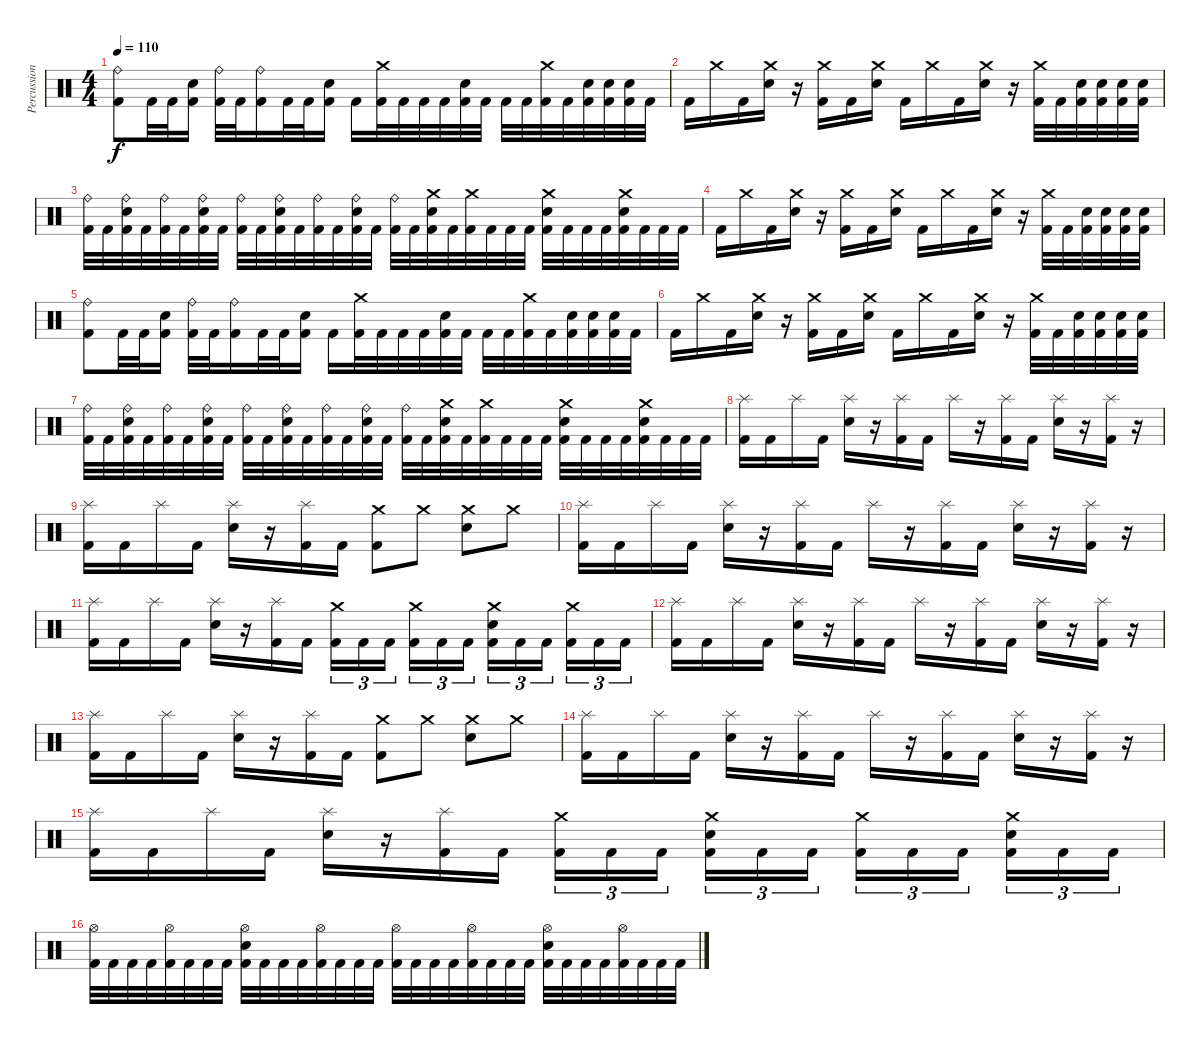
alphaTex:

\track ("Percussion" "Percussion") {instrument percussion}
\staff {score}
\articulation defaults
\ts (4 4)
\tempo 110
\clef neutral
\ks c
("Ride (bell)" "Kick (hit) 2").8{dy f} "Kick (hit) 2".32 "Kick (hit) 2".32 ("Electric Snare (hit)" "Kick (hit) 2").16 ("Ride (bell)" "Kick (hit) 2").32 "Kick (hit) 2".32 ("Ride (bell)" "Kick (hit) 2").16 "Kick (hit) 2".32 "Kick (hit) 2".32 ("Electric Snare (hit)" "Kick (hit) 2").16 "Kick (hit) 2".16 ("Crash medium (hit)" "Kick (hit) 2").32 "Kick (hit) 2".32 "Kick (hit) 2".32 "Kick (hit) 2".32 ("Electric Snare (hit)" "Kick (hit) 2").32 "Kick (hit) 2".32 "Kick (hit) 2".32 "Kick (hit) 2".32 ("Crash medium (hit)" "Kick (hit) 2").32 "Kick (hit) 2".32 ("Electric Snare (hit)" "Kick (hit) 2").32 ("Electric Snare (hit)" "Kick (hit) 2").32 ("Electric Snare (hit)" "Kick (hit) 2").32 "Kick (hit) 2".32 |
"Kick (hit) 2".16 "Crash medium (hit)".16 "Kick (hit) 2".16 ("Crash medium (hit)" "Electric Snare (hit)").16 r.16 ("Crash medium (hit)" "Kick (hit) 2").16 "Kick (hit) 2".16 ("Crash medium (hit)" "Electric Snare (hit)").16 "Kick (hit) 2".16 "Crash medium (hit)".16 "Kick (hit) 2".16 ("Crash medium (hit)" "Electric Snare (hit)").16 r.16 ("Crash medium (hit)" "Kick (hit) 2").32 "Kick (hit) 2".32 ("Electric Snare (hit)" "Kick (hit) 2").32 ("Electric Snare (hit)" "Kick (hit) 2").32 ("Electric Snare (hit)" "Kick (hit) 2").32 ("Electric Snare (hit)" "Kick (hit) 2").32 |
("Ride (bell)" "Kick (hit) 2").32 "Kick (hit) 2".32 ("Ride (bell)" "Electric Snare (hit)" "Kick (hit) 2").32 "Kick (hit) 2".32 ("Ride (bell)" "Kick (hit) 2").32 "Kick (hit) 2".32 ("Ride (bell)" "Electric Snare (hit)" "Kick (hit) 2").32 "Kick (hit) 2".32 ("Ride (bell)" "Kick (hit) 2").32 "Kick (hit) 2".32 ("Ride (bell)" "Electric Snare (hit)" "Kick (hit) 2").32 "Kick (hit) 2".32 ("Ride (bell)" "Kick (hit) 2").32 "Kick (hit) 2".32 ("Ride (bell)" "Electric Snare (hit)" "Kick (hit) 2").32 "Kick (hit) 2".32 ("Ride (bell)" "Kick (hit) 2").32 "Kick (hit) 2".32 ("Crash medium (hit)" "Electric Snare (hit)" "Kick (hit) 2").32 "Kick (hit) 2".32 ("Crash medium (hit)" "Kick (hit) 2").32 "Kick (hit) 2".32 "Kick (hit) 2".32 "Kick (hit) 2".32 ("Crash medium (hit)" "Electric Snare (hit)" "Kick (hit) 2").32 "Kick (hit) 2".32 "Kick (hit) 2".32 "Kick (hit) 2".32 ("Crash medium (hit)" "Electric Snare (hit)" "Kick (hit) 2").32 "Kick (hit) 2".32 "Kick (hit) 2".32 "Kick (hit) 2".32 |
"Kick (hit) 2".16 "Crash medium (hit)".16 "Kick (hit) 2".16 ("Crash medium (hit)" "Electric Snare (hit)").16 r.16 ("Crash medium (hit)" "Kick (hit) 2").16 "Kick (hit) 2".16 ("Crash medium (hit)" "Electric Snare (hit)").16 "Kick (hit) 2".16 "Crash medium (hit)".16 "Kick (hit) 2".16 ("Crash medium (hit)" "Electric Snare (hit)").16 r.16 ("Crash medium (hit)" "Kick (hit) 2").32 "Kick (hit) 2".32 ("Electric Snare (hit)" "Kick (hit) 2").32 ("Electric Snare (hit)" "Kick (hit) 2").32 ("Electric Snare (hit)" "Kick (hit) 2").32 ("Electric Snare (hit)" "Kick (hit) 2").32 |
("Ride (bell)" "Kick (hit) 2").8 "Kick (hit) 2".32 "Kick (hit) 2".32 ("Electric Snare (hit)" "Kick (hit) 2").16 ("Ride (bell)" "Kick (hit) 2").32 "Kick (hit) 2".32 ("Ride (bell)" "Kick (hit) 2").16 "Kick (hit) 2".32 "Kick (hit) 2".32 ("Electric Snare (hit)" "Kick (hit) 2").16 "Kick (hit) 2".16 ("Crash medium (hit)" "Kick (hit) 2").32 "Kick (hit) 2".32 "Kick (hit) 2".32 "Kick (hit) 2".32 ("Electric Snare (hit)" "Kick (hit) 2").32 "Kick (hit) 2".32 "Kick (hit) 2".32 "Kick (hit) 2".32 ("Crash medium (hit)" "Kick (hit) 2").32 "Kick (hit) 2".32 ("Electric Snare (hit)" "Kick (hit) 2").32 ("Electric Snare (hit)" "Kick (hit) 2").32 ("Electric Snare (hit)" "Kick (hit) 2").32 "Kick (hit) 2".32 |
"Kick (hit) 2".16 "Crash medium (hit)".16 "Kick (hit) 2".16 ("Crash medium (hit)" "Electric Snare (hit)").16 r.16 ("Crash medium (hit)" "Kick (hit) 2").16 "Kick (hit) 2".16 ("Crash medium (hit)" "Electric Snare (hit)").16 "Kick (hit) 2".16 "Crash medium (hit)".16 "Kick (hit) 2".16 ("Crash medium (hit)" "Electric Snare (hit)").16 r.16 ("Crash medium (hit)" "Kick (hit) 2").32 "Kick (hit) 2".32 ("Electric Snare (hit)" "Kick (hit) 2").32 ("Electric Snare (hit)" "Kick (hit) 2").32 ("Electric Snare (hit)" "Kick (hit) 2").32 ("Electric Snare (hit)" "Kick (hit) 2").32 |
("Ride (bell)" "Kick (hit) 2").32 "Kick (hit) 2".32 ("Ride (bell)" "Electric Snare (hit)" "Kick (hit) 2").32 "Kick (hit) 2".32 ("Ride (bell)" "Kick (hit) 2").32 "Kick (hit) 2".32 ("Ride (bell)" "Electric Snare (hit)" "Kick (hit) 2").32 "Kick (hit) 2".32 ("Ride (bell)" "Kick (hit) 2").32 "Kick (hit) 2".32 ("Ride (bell)" "Electric Snare (hit)" "Kick (hit) 2").32 "Kick (hit) 2".32 ("Ride (bell)" "Kick (hit) 2").32 "Kick (hit) 2".32 ("Ride (bell)" "Electric Snare (hit)" "Kick (hit) 2").32 "Kick (hit) 2".32 ("Ride (bell)" "Kick (hit) 2").32 "Kick (hit) 2".32 ("Crash medium (hit)" "Electric Snare (hit)" "Kick (hit) 2").32 "Kick (hit) 2".32 ("Crash medium (hit)" "Kick (hit) 2").32 "Kick (hit) 2".32 "Kick (hit) 2".32 "Kick (hit) 2".32 ("Crash medium (hit)" "Electric Snare (hit)" "Kick (hit) 2").32 "Kick (hit) 2".32 "Kick (hit) 2".32 "Kick (hit) 2".32 ("Crash medium (hit)" "Electric Snare (hit)" "Kick (hit) 2").32 "Kick (hit) 2".32 "Kick (hit) 2".32 "Kick (hit) 2".32 |
("Splash (hit)" "Kick (hit) 2").16 "Kick (hit) 2".16 "Splash (hit)".16 "Kick (hit) 2".16 ("Splash (hit)" "Electric Snare (hit)").16 r.16 ("Splash (hit)" "Kick (hit) 2").16 "Kick (hit) 2".16 "Splash (hit)".16 r.16 ("Splash (hit)" "Kick (hit) 2").16 "Kick (hit) 2".16 ("Splash (hit)" "Electric Snare (hit)").16 r.16 ("Splash (hit)" "Kick (hit) 2").16 r.16 |
("Splash (hit)" "Kick (hit) 2").16 "Kick (hit) 2".16 "Splash (hit)".16 "Kick (hit) 2".16 ("Splash (hit)" "Electric Snare (hit)").16 r.16 ("Splash (hit)" "Kick (hit) 2").16 "Kick (hit) 2".16 ("Crash medium (hit)" "Kick (hit) 2").8 "Crash medium (hit)".8 ("Crash medium (hit)" "Electric Snare (hit)").8 "Crash medium (hit)".8 |
("Splash (hit)" "Kick (hit) 2").16 "Kick (hit) 2".16 "Splash (hit)".16 "Kick (hit) 2".16 ("Splash (hit)" "Electric Snare (hit)").16 r.16 ("Splash (hit)" "Kick (hit) 2").16 "Kick (hit) 2".16 "Splash (hit)".16 r.16 ("Splash (hit)" "Kick (hit) 2").16 "Kick (hit) 2".16 ("Splash (hit)" "Electric Snare (hit)").16 r.16 ("Splash (hit)" "Kick (hit) 2").16 r.16 |
("Splash (hit)" "Kick (hit) 2").16 "Kick (hit) 2".16 "Splash (hit)".16 "Kick (hit) 2".16 ("Splash (hit)" "Electric Snare (hit)").16 r.16 ("Splash (hit)" "Kick (hit) 2").16 "Kick (hit) 2".16 ("Crash medium (hit)" "Kick (hit) 2").16{tu (3 2)} "Kick (hit) 2".16{tu (3 2)} "Kick (hit) 2".16{tu (3 2) beam splitsecondary} ("Crash medium (hit)" "Kick (hit) 2").16{tu (3 2)} "Kick (hit) 2".16{tu (3 2)} "Kick (hit) 2".16{tu (3 2)} ("Crash medium (hit)" "Electric Snare (hit)" "Kick (hit) 2").16{tu (3 2)} "Kick (hit) 2".16{tu (3 2)} "Kick (hit) 2".16{tu (3 2) beam splitsecondary} ("Crash medium (hit)" "Kick (hit) 2").16{tu (3 2)} "Kick (hit) 2".16{tu (3 2)} "Kick (hit) 2".16{tu (3 2)} |
("Splash (hit)" "Kick (hit) 2").16 "Kick (hit) 2".16 "Splash (hit)".16 "Kick (hit) 2".16 ("Splash (hit)" "Electric Snare (hit)").16 r.16 ("Splash (hit)" "Kick (hit) 2").16 "Kick (hit) 2".16 "Splash (hit)".16 r.16 ("Splash (hit)" "Kick (hit) 2").16 "Kick (hit) 2".16 ("Splash (hit)" "Electric Snare (hit)").16 r.16 ("Splash (hit)" "Kick (hit) 2").16 r.16 |
("Splash (hit)" "Kick (hit) 2").16 "Kick (hit) 2".16 "Splash (hit)".16 "Kick (hit) 2".16 ("Splash (hit)" "Electric Snare (hit)").16 r.16 ("Splash (hit)" "Kick (hit) 2").16 "Kick (hit) 2".16 ("Crash medium (hit)" "Kick (hit) 2").8 "Crash medium (hit)".8 ("Crash medium (hit)" "Electric Snare (hit)").8 "Crash medium (hit)".8 |
("Splash (hit)" "Kick (hit) 2").16 "Kick (hit) 2".16 "Splash (hit)".16 "Kick (hit) 2".16 ("Splash (hit)" "Electric Snare (hit)").16 r.16 ("Splash (hit)" "Kick (hit) 2").16 "Kick (hit) 2".16 "Splash (hit)".16 r.16 ("Splash (hit)" "Kick (hit) 2").16 "Kick (hit) 2".16 ("Splash (hit)" "Electric Snare (hit)").16 r.16 ("Splash (hit)" "Kick (hit) 2").16 r.16 |
("Splash (hit)" "Kick (hit) 2").16 "Kick (hit) 2".16 "Splash (hit)".16 "Kick (hit) 2".16 ("Splash (hit)" "Electric Snare (hit)").16 r.16 ("Splash (hit)" "Kick (hit) 2").16 "Kick (hit) 2".16 ("Crash medium (hit)" "Kick (hit) 2").16{tu (3 2)} "Kick (hit) 2".16{tu (3 2)} "Kick (hit) 2".16{tu (3 2) beam splitsecondary} ("Crash medium (hit)" "Electric Snare (hit)" "Kick (hit) 2").16{tu (3 2)} "Kick (hit) 2".16{tu (3 2)} "Kick (hit) 2".16{tu (3 2)} ("Crash medium (hit)" "Kick (hit) 2").16{tu (3 2)} "Kick (hit) 2".16{tu (3 2)} "Kick (hit) 2".16{tu (3 2) beam splitsecondary} ("Crash medium (hit)" "Electric Snare (hit)" "Kick (hit) 2").16{tu (3 2)} "Kick (hit) 2".16{tu (3 2)} "Kick (hit) 2".16{tu (3 2)} |
("Hi-Hat (open)" "Kick (hit) 2").32 "Kick (hit) 2".32 "Kick (hit) 2".32 "Kick (hit) 2".32 ("Hi-Hat (open)" "Kick (hit) 2").32 "Kick (hit) 2".32 "Kick (hit) 2".32 "Kick (hit) 2".32 ("Hi-Hat (open)" "Electric Snare (hit)" "Kick (hit) 2").32 "Kick (hit) 2".32 "Kick (hit) 2".32 "Kick (hit) 2".32 ("Hi-Hat (open)" "Kick (hit) 2").32 "Kick (hit) 2".32 "Kick (hit) 2".32 "Kick (hit) 2".32 ("Hi-Hat (open)" "Kick (hit) 2").32 "Kick (hit) 2".32 "Kick (hit) 2".32 "Kick (hit) 2".32 ("Hi-Hat (open)" "Kick (hit) 2").32 "Kick (hit) 2".32 "Kick (hit) 2".32 "Kick (hit) 2".32 ("Hi-Hat (open)" "Electric Snare (hit)" "Kick (hit) 2").32 "Kick (hit) 2".32 "Kick (hit) 2".32 "Kick (hit) 2".32 ("Hi-Hat (open)" "Kick (hit) 2").32 "Kick (hit) 2".32 "Kick (hit) 2".32 "Kick (hit) 2".32
